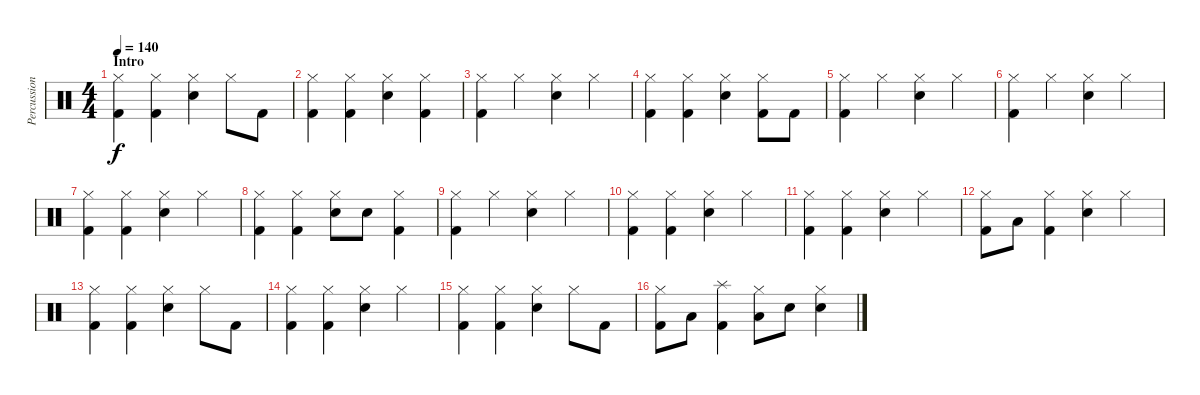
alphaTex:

\track ("Percussion" "Percussion") {instrument percussion}
\staff {score}
\articulation defaults
\ts (4 4)
\section ("" "Intro")
\tempo 140
\clef neutral
\ks c
("Hi-Hat (closed)" "Kick (hit) 2").4{dy f} ("Hi-Hat (closed)" "Kick (hit) 2").4 ("Hi-Hat (closed)" "Electric Snare (hit)").4 "Hi-Hat (closed)".8 "Kick (hit) 2".8 |
("Hi-Hat (closed)" "Kick (hit) 2").4 ("Hi-Hat (closed)" "Kick (hit) 2").4 ("Hi-Hat (closed)" "Electric Snare (hit)").4 ("Hi-Hat (closed)" "Kick (hit) 2").4 |
("Hi-Hat (closed)" "Kick (hit) 2").4 "Hi-Hat (closed)".4 ("Hi-Hat (closed)" "Electric Snare (hit)").4 "Hi-Hat (closed)".4 |
("Hi-Hat (closed)" "Kick (hit) 2").4 ("Hi-Hat (closed)" "Kick (hit) 2").4 ("Hi-Hat (closed)" "Electric Snare (hit)").4 ("Hi-Hat (closed)" "Kick (hit) 2").8 "Kick (hit) 2".8 |
("Hi-Hat (closed)" "Kick (hit) 2").4 "Hi-Hat (closed)".4 ("Hi-Hat (closed)" "Electric Snare (hit)").4 "Hi-Hat (closed)".4 |
("Hi-Hat (closed)" "Kick (hit) 2").4 "Hi-Hat (closed)".4 ("Hi-Hat (closed)" "Electric Snare (hit)").4 "Hi-Hat (closed)".4 |
("Hi-Hat (closed)" "Kick (hit) 2").4 ("Hi-Hat (closed)" "Kick (hit) 2").4 ("Hi-Hat (closed)" "Electric Snare (hit)").4 "Hi-Hat (closed)".4 |
("Hi-Hat (closed)" "Kick (hit) 2").4 ("Hi-Hat (closed)" "Kick (hit) 2").4 ("Hi-Hat (closed)" "Electric Snare (hit)").8 "Electric Snare (hit)".8 ("Hi-Hat (closed)" "Kick (hit) 2").4 |
("Hi-Hat (closed)" "Kick (hit) 2").4 "Hi-Hat (closed)".4 ("Hi-Hat (closed)" "Electric Snare (hit)").4 "Hi-Hat (closed)".4 |
("Hi-Hat (closed)" "Kick (hit) 2").4 ("Hi-Hat (closed)" "Kick (hit) 2").4 ("Hi-Hat (closed)" "Electric Snare (hit)").4 "Hi-Hat (closed)".4 |
("Hi-Hat (closed)" "Kick (hit) 2").4 ("Hi-Hat (closed)" "Kick (hit) 2").4 ("Hi-Hat (closed)" "Electric Snare (hit)").4 "Hi-Hat (closed)".4 |
("Hi-Hat (closed)" "Kick (hit) 2").8 "Low Tom (hit)".8 ("Hi-Hat (closed)" "Kick (hit) 2").4 ("Hi-Hat (closed)" "Electric Snare (hit)").4 "Hi-Hat (closed)".4 |
("Hi-Hat (closed)" "Kick (hit) 2").4 ("Hi-Hat (closed)" "Kick (hit) 2").4 ("Hi-Hat (closed)" "Electric Snare (hit)").4 "Hi-Hat (closed)".8 "Kick (hit) 2".8 |
("Hi-Hat (closed)" "Kick (hit) 2").4 ("Hi-Hat (closed)" "Kick (hit) 2").4 ("Hi-Hat (closed)" "Electric Snare (hit)").4 "Hi-Hat (closed)".4 |
("Hi-Hat (closed)" "Kick (hit) 2").4 ("Hi-Hat (closed)" "Kick (hit) 2").4 ("Hi-Hat (closed)" "Electric Snare (hit)").4 "Hi-Hat (closed)".8 "Kick (hit) 2".8 |
("Hi-Hat (closed)" "Kick (hit) 2").8 "Low Tom (hit)".8 ("Splash (hit)" "Kick (hit) 2").4 ("Hi-Hat (closed)" "Low Tom (hit)").8 "Electric Snare (hit)".8 ("Hi-Hat (closed)" "Electric Snare (hit)").4
